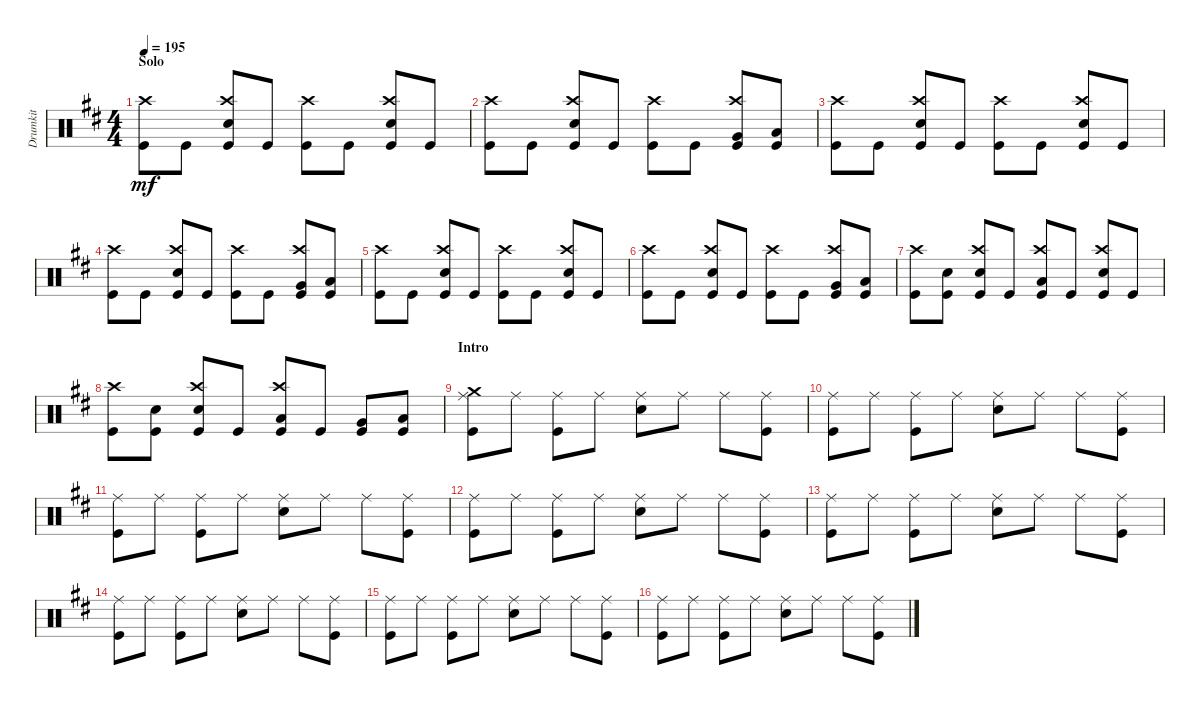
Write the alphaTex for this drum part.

\track ("Drumkit" "Drumkit") {instrument percussion}
\staff {score}
\articulation defaults
\ts (4 4)
\section ("" "Solo")
\tempo 195
\clef neutral
\ks bminor
("Kick (hit)" "Crash high (hit)").8{dy mf} "Kick (hit)".8 ("Kick (hit)" "Snare (hit) 2" "Crash high (hit)").8 "Kick (hit)".8 ("Crash high (hit)" "Kick (hit)").8 "Kick (hit)".8 ("Kick (hit)" "Snare (hit) 2" "Crash high (hit)").8 "Kick (hit)".8 |
("Kick (hit)" "Crash high (hit)").8 "Kick (hit)".8 ("Kick (hit)" "Snare (hit) 2" "Crash high (hit)").8 "Kick (hit)".8 ("Kick (hit)" "Crash high (hit)").8 "Kick (hit)".8 ("Kick (hit)" "Very Low Tom (hit)" "Crash high (hit)").8 ("Kick (hit)" "Low Floor Tom (hit)").8 |
("Kick (hit)" "Crash high (hit)").8 "Kick (hit)".8 ("Kick (hit)" "Snare (hit) 2" "Crash high (hit)").8 "Kick (hit)".8 ("Crash high (hit)" "Kick (hit)").8 "Kick (hit)".8 ("Kick (hit)" "Snare (hit) 2" "Crash high (hit)").8 "Kick (hit)".8 |
("Kick (hit)" "Crash high (hit)").8 "Kick (hit)".8 ("Kick (hit)" "Snare (hit) 2" "Crash high (hit)").8 "Kick (hit)".8 ("Kick (hit)" "Crash high (hit)").8 "Kick (hit)".8 ("Kick (hit)" "Very Low Tom (hit)" "Crash high (hit)").8 ("Kick (hit)" "Low Floor Tom (hit)").8 |
("Kick (hit)" "Crash high (hit)").8 "Kick (hit)".8 ("Kick (hit)" "Snare (hit) 2" "Crash high (hit)").8 "Kick (hit)".8 ("Crash high (hit)" "Kick (hit)").8 "Kick (hit)".8 ("Kick (hit)" "Snare (hit) 2" "Crash high (hit)").8 "Kick (hit)".8 |
("Kick (hit)" "Crash high (hit)").8 "Kick (hit)".8 ("Kick (hit)" "Snare (hit) 2" "Crash high (hit)").8 "Kick (hit)".8 ("Kick (hit)" "Crash high (hit)").8 "Kick (hit)".8 ("Kick (hit)" "Very Low Tom (hit)" "Crash high (hit)").8 ("Kick (hit)" "Low Floor Tom (hit)").8 |
("Kick (hit)" "Crash high (hit)").8 ("Kick (hit)" "Snare (hit) 2").8 ("Kick (hit)" "Snare (hit) 2" "Crash high (hit)").8 "Kick (hit)".8 ("Kick (hit)" "Crash high (hit)" "Low Tom (hit)").8 "Kick (hit)".8 ("Kick (hit)" "Snare (hit) 2" "Crash high (hit)").8 "Kick (hit)".8 |
("Kick (hit)" "Crash high (hit)").8 ("Kick (hit)" "Snare (hit) 2").8 ("Kick (hit)" "Snare (hit) 2" "Crash high (hit)").8 "Kick (hit)".8 ("Kick (hit)" "Crash high (hit)" "Low Tom (hit)").8 "Kick (hit)".8 ("Kick (hit)" "Very Low Tom (hit)").8 ("Kick (hit)" "Low Floor Tom (hit)").8 |
\section ("" "Intro")
("Ride (middle)" "Kick (hit)" "Crash medium (hit)").8 "Ride (middle)".8 ("Ride (middle)" "Kick (hit)").8 "Ride (middle)".8 ("Ride (middle)" "Snare (hit) 2").8 "Ride (middle)".8 "Ride (middle)".8 ("Ride (middle)" "Kick (hit)").8 |
("Ride (middle)" "Kick (hit)").8 "Ride (middle)".8 ("Ride (middle)" "Kick (hit)").8 "Ride (middle)".8 ("Ride (middle)" "Snare (hit) 2").8 "Ride (middle)".8 "Ride (middle)".8 ("Ride (middle)" "Kick (hit)").8 |
("Ride (middle)" "Kick (hit)").8 "Ride (middle)".8 ("Ride (middle)" "Kick (hit)").8 "Ride (middle)".8 ("Ride (middle)" "Snare (hit) 2").8 "Ride (middle)".8 "Ride (middle)".8 ("Ride (middle)" "Kick (hit)").8 |
("Ride (middle)" "Kick (hit)").8 "Ride (middle)".8 ("Ride (middle)" "Kick (hit)").8 "Ride (middle)".8 ("Ride (middle)" "Snare (hit) 2").8 "Ride (middle)".8 "Ride (middle)".8 ("Ride (middle)" "Kick (hit)").8 |
("Ride (middle)" "Kick (hit)").8 "Ride (middle)".8 ("Ride (middle)" "Kick (hit)").8 "Ride (middle)".8 ("Ride (middle)" "Snare (hit) 2").8 "Ride (middle)".8 "Ride (middle)".8 ("Ride (middle)" "Kick (hit)").8 |
("Ride (middle)" "Kick (hit)").8 "Ride (middle)".8 ("Ride (middle)" "Kick (hit)").8 "Ride (middle)".8 ("Ride (middle)" "Snare (hit) 2").8 "Ride (middle)".8 "Ride (middle)".8 ("Ride (middle)" "Kick (hit)").8 |
("Ride (middle)" "Kick (hit)").8 "Ride (middle)".8 ("Ride (middle)" "Kick (hit)").8 "Ride (middle)".8 ("Ride (middle)" "Snare (hit) 2").8 "Ride (middle)".8 "Ride (middle)".8 ("Ride (middle)" "Kick (hit)").8 |
("Ride (middle)" "Kick (hit)").8 "Ride (middle)".8 ("Ride (middle)" "Kick (hit)").8 "Ride (middle)".8 ("Ride (middle)" "Snare (hit) 2").8 "Ride (middle)".8 "Ride (middle)".8 ("Ride (middle)" "Kick (hit)").8
